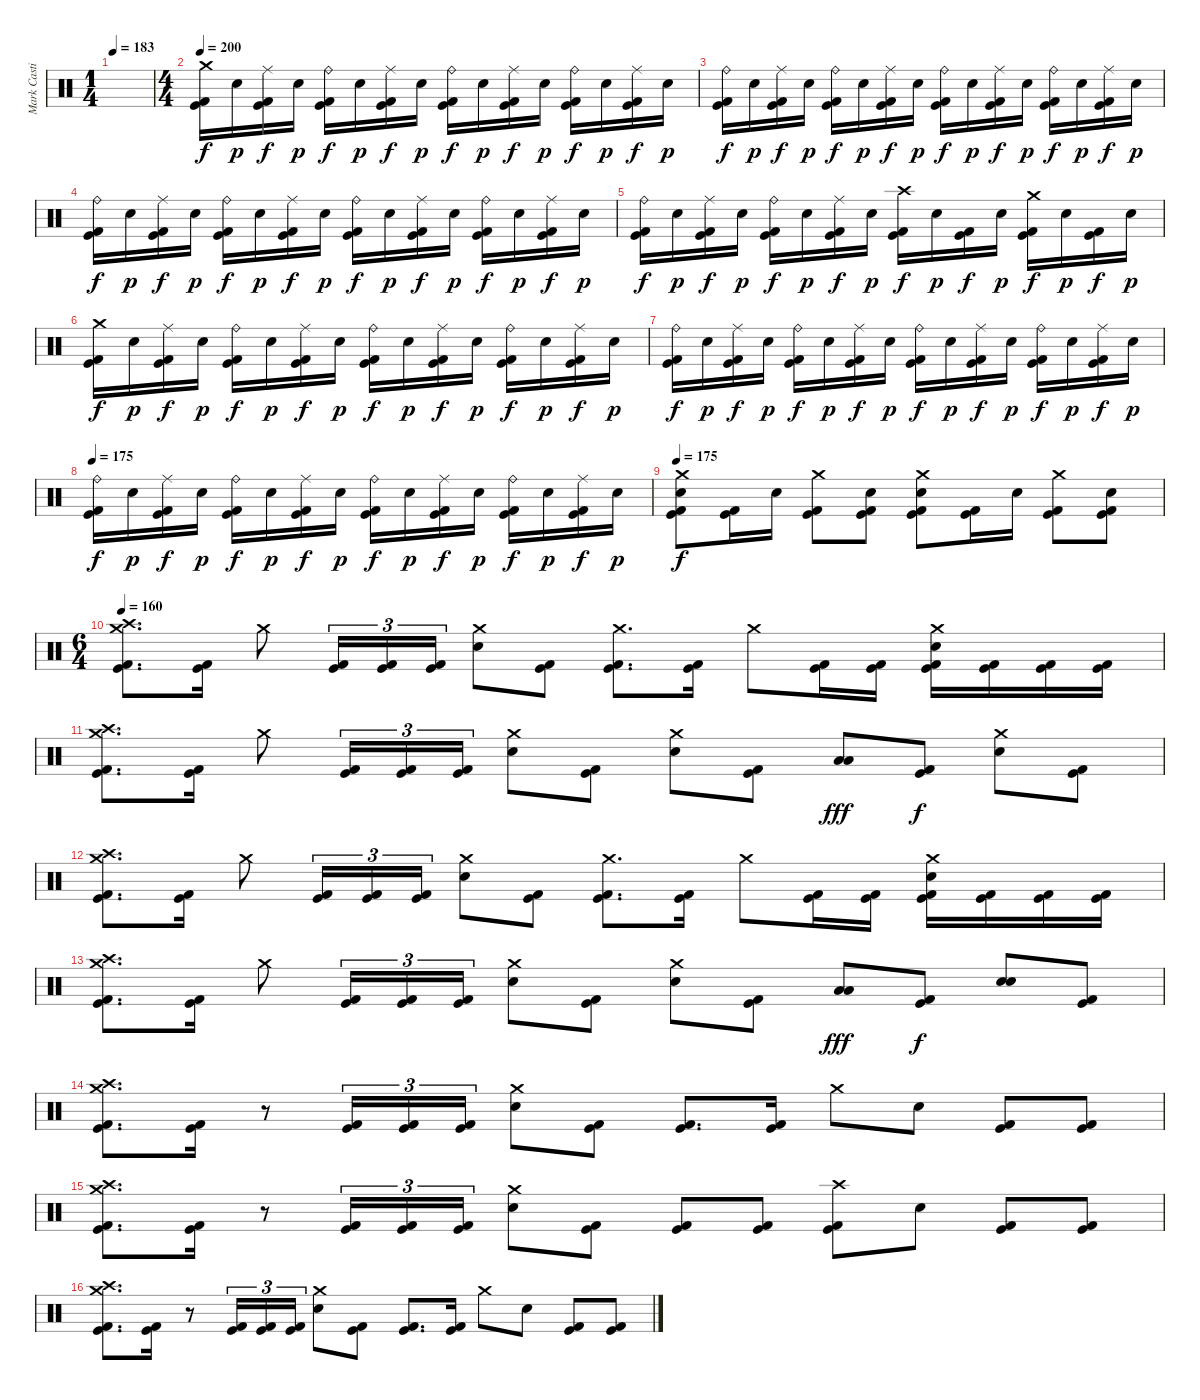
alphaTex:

\track ("Mark Castillo" "Mark Casti") {instrument percussion}
\staff {score}
\articulation defaults
\ts (1 4)
\tempo 183
\clef neutral
\ks c
|
\ts (4 4)
\tempo 200
("Crash medium (hit)" "Kick (hit)" "Kick (hit) 2").16{dy f} "Electric Snare (hit)".16{dy p} ("Ride (middle)" "Kick (hit)" "Kick (hit) 2").16{dy f} "Electric Snare (hit)".16{dy p} ("Ride (bell)" "Kick (hit)" "Kick (hit) 2").16{dy f} "Electric Snare (hit)".16{dy p} ("Ride (middle)" "Kick (hit)" "Kick (hit) 2").16{dy f} "Electric Snare (hit)".16{dy p} ("Ride (bell)" "Kick (hit)" "Kick (hit) 2").16{dy f} "Electric Snare (hit)".16{dy p} ("Ride (middle)" "Kick (hit)" "Kick (hit) 2").16{dy f} "Electric Snare (hit)".16{dy p} ("Ride (bell)" "Kick (hit)" "Kick (hit) 2").16{dy f} "Electric Snare (hit)".16{dy p} ("Ride (middle)" "Kick (hit)" "Kick (hit) 2").16{dy f} "Electric Snare (hit)".16{dy p} |
("Ride (bell)" "Kick (hit)" "Kick (hit) 2").16{dy f} "Electric Snare (hit)".16{dy p} ("Ride (middle)" "Kick (hit)" "Kick (hit) 2").16{dy f} "Electric Snare (hit)".16{dy p} ("Ride (bell)" "Kick (hit)" "Kick (hit) 2").16{dy f} "Electric Snare (hit)".16{dy p} ("Ride (middle)" "Kick (hit)" "Kick (hit) 2").16{dy f} "Electric Snare (hit)".16{dy p} ("Ride (bell)" "Kick (hit)" "Kick (hit) 2").16{dy f} "Electric Snare (hit)".16{dy p} ("Ride (middle)" "Kick (hit)" "Kick (hit) 2").16{dy f} "Electric Snare (hit)".16{dy p} ("Ride (bell)" "Kick (hit)" "Kick (hit) 2").16{dy f} "Electric Snare (hit)".16{dy p} ("Ride (middle)" "Kick (hit)" "Kick (hit) 2").16{dy f} "Electric Snare (hit)".16{dy p} |
("Ride (bell)" "Kick (hit)" "Kick (hit) 2").16{dy f} "Electric Snare (hit)".16{dy p} ("Ride (middle)" "Kick (hit)" "Kick (hit) 2").16{dy f} "Electric Snare (hit)".16{dy p} ("Ride (bell)" "Kick (hit)" "Kick (hit) 2").16{dy f} "Electric Snare (hit)".16{dy p} ("Ride (middle)" "Kick (hit)" "Kick (hit) 2").16{dy f} "Electric Snare (hit)".16{dy p} ("Ride (bell)" "Kick (hit)" "Kick (hit) 2").16{dy f} "Electric Snare (hit)".16{dy p} ("Ride (middle)" "Kick (hit)" "Kick (hit) 2").16{dy f} "Electric Snare (hit)".16{dy p} ("Ride (bell)" "Kick (hit)" "Kick (hit) 2").16{dy f} "Electric Snare (hit)".16{dy p} ("Ride (middle)" "Kick (hit)" "Kick (hit) 2").16{dy f} "Electric Snare (hit)".16{dy p} |
("Ride (bell)" "Kick (hit)" "Kick (hit) 2").16{dy f} "Electric Snare (hit)".16{dy p} ("Ride (middle)" "Kick (hit)" "Kick (hit) 2").16{dy f} "Electric Snare (hit)".16{dy p} ("Ride (bell)" "Kick (hit)" "Kick (hit) 2").16{dy f} "Electric Snare (hit)".16{dy p} ("Ride (middle)" "Kick (hit)" "Kick (hit) 2").16{dy f} "Electric Snare (hit)".16{dy p} ("Crash high (hit)" "Kick (hit)" "Kick (hit) 2").16{dy f} "Electric Snare (hit)".16{dy p} ("Kick (hit)" "Kick (hit) 2").16{dy f} "Electric Snare (hit)".16{dy p} ("Crash medium (hit)" "Kick (hit)" "Kick (hit) 2").16{dy f} "Electric Snare (hit)".16{dy p} ("Kick (hit)" "Kick (hit) 2").16{dy f} "Electric Snare (hit)".16{dy p} |
("Crash medium (hit)" "Kick (hit)" "Kick (hit) 2").16{dy f} "Electric Snare (hit)".16{dy p} ("Ride (middle)" "Kick (hit)" "Kick (hit) 2").16{dy f} "Electric Snare (hit)".16{dy p} ("Ride (bell)" "Kick (hit)" "Kick (hit) 2").16{dy f} "Electric Snare (hit)".16{dy p} ("Ride (middle)" "Kick (hit)" "Kick (hit) 2").16{dy f} "Electric Snare (hit)".16{dy p} ("Ride (bell)" "Kick (hit)" "Kick (hit) 2").16{dy f} "Electric Snare (hit)".16{dy p} ("Ride (middle)" "Kick (hit)" "Kick (hit) 2").16{dy f} "Electric Snare (hit)".16{dy p} ("Ride (bell)" "Kick (hit)" "Kick (hit) 2").16{dy f} "Electric Snare (hit)".16{dy p} ("Ride (middle)" "Kick (hit)" "Kick (hit) 2").16{dy f} "Electric Snare (hit)".16{dy p} |
("Ride (bell)" "Kick (hit)" "Kick (hit) 2").16{dy f} "Electric Snare (hit)".16{dy p} ("Ride (middle)" "Kick (hit)" "Kick (hit) 2").16{dy f} "Electric Snare (hit)".16{dy p} ("Ride (bell)" "Kick (hit)" "Kick (hit) 2").16{dy f} "Electric Snare (hit)".16{dy p} ("Ride (middle)" "Kick (hit)" "Kick (hit) 2").16{dy f} "Electric Snare (hit)".16{dy p} ("Ride (bell)" "Kick (hit)" "Kick (hit) 2").16{dy f} "Electric Snare (hit)".16{dy p} ("Ride (middle)" "Kick (hit)" "Kick (hit) 2").16{dy f} "Electric Snare (hit)".16{dy p} ("Ride (bell)" "Kick (hit)" "Kick (hit) 2").16{dy f} "Electric Snare (hit)".16{dy p} ("Ride (middle)" "Kick (hit)" "Kick (hit) 2").16{dy f} "Electric Snare (hit)".16{dy p} |
\tempo 175
("Ride (bell)" "Kick (hit)" "Kick (hit) 2").16{dy f} "Electric Snare (hit)".16{dy p} ("Ride (middle)" "Kick (hit)" "Kick (hit) 2").16{dy f} "Electric Snare (hit)".16{dy p} ("Ride (bell)" "Kick (hit)" "Kick (hit) 2").16{dy f} "Electric Snare (hit)".16{dy p} ("Ride (middle)" "Kick (hit)" "Kick (hit) 2").16{dy f} "Electric Snare (hit)".16{dy p} ("Ride (bell)" "Kick (hit)" "Kick (hit) 2").16{dy f} "Electric Snare (hit)".16{dy p} ("Ride (middle)" "Kick (hit)" "Kick (hit) 2").16{dy f} "Electric Snare (hit)".16{dy p} ("Ride (bell)" "Kick (hit)" "Kick (hit) 2").16{dy f} "Electric Snare (hit)".16{dy p} ("Ride (middle)" "Kick (hit)" "Kick (hit) 2").16{dy f} "Electric Snare (hit)".16{dy p} |
\tempo 175
("Crash medium (hit)" "Electric Snare (hit)" "Kick (hit)" "Kick (hit) 2").8{dy f} ("Kick (hit)" "Kick (hit) 2").16 "Electric Snare (hit)".16 ("Crash medium (hit)" "Kick (hit)" "Kick (hit) 2").8 ("Electric Snare (hit)" "Kick (hit)" "Kick (hit) 2").8 ("Crash medium (hit)" "Electric Snare (hit)" "Kick (hit)" "Kick (hit) 2").8 ("Kick (hit)" "Kick (hit) 2").16 "Electric Snare (hit)".16 ("Crash medium (hit)" "Kick (hit)" "Kick (hit) 2").8 ("Electric Snare (hit)" "Kick (hit)" "Kick (hit) 2").8 |
\ts (6 4)
\tempo 160
("Crash medium (hit)" "Crash high (hit)" "Kick (hit)" "Kick (hit) 2").8{d} ("Kick (hit)" "Kick (hit) 2").16 "Crash medium (hit)".8 ("Kick (hit)" "Kick (hit) 2").16{tu (3 2)} ("Kick (hit)" "Kick (hit) 2").16{tu (3 2)} ("Kick (hit)" "Kick (hit) 2").16{tu (3 2)} ("Crash medium (hit)" "Electric Snare (hit)").8 ("Kick (hit)" "Kick (hit) 2").8 ("Crash medium (hit)" "Kick (hit)" "Kick (hit) 2").8{d} ("Kick (hit)" "Kick (hit) 2").16 "Crash medium (hit)".8 ("Kick (hit)" "Kick (hit) 2").16 ("Kick (hit)" "Kick (hit) 2").16 ("Crash medium (hit)" "Electric Snare (hit)" "Kick (hit)" "Kick (hit) 2").16 ("Kick (hit)" "Kick (hit) 2").16 ("Kick (hit)" "Kick (hit) 2").16 ("Kick (hit)" "Kick (hit) 2").16 |
("Crash medium (hit)" "Crash high (hit)" "Kick (hit)" "Kick (hit) 2").8{d} ("Kick (hit)" "Kick (hit) 2").16 "Crash medium (hit)".8 ("Kick (hit)" "Kick (hit) 2").16{tu (3 2)} ("Kick (hit)" "Kick (hit) 2").16{tu (3 2)} ("Kick (hit)" "Kick (hit) 2").16{tu (3 2)} ("Crash medium (hit)" "Electric Snare (hit)").8 ("Kick (hit)" "Kick (hit) 2").8 ("Crash medium (hit)" "Electric Snare (hit)").8 ("Kick (hit)" "Kick (hit) 2").8 ("Low Tom (hit)" "Low Tom (hit)").8{bu 480 dy fff} ("Kick (hit)" "Kick (hit) 2").8{dy f} ("Crash medium (hit)" "Electric Snare (hit)").8 ("Kick (hit)" "Kick (hit) 2").8 |
("Crash medium (hit)" "Crash high (hit)" "Kick (hit)" "Kick (hit) 2").8{d} ("Kick (hit)" "Kick (hit) 2").16 "Crash medium (hit)".8 ("Kick (hit)" "Kick (hit) 2").16{tu (3 2)} ("Kick (hit)" "Kick (hit) 2").16{tu (3 2)} ("Kick (hit)" "Kick (hit) 2").16{tu (3 2)} ("Crash medium (hit)" "Electric Snare (hit)").8 ("Kick (hit)" "Kick (hit) 2").8 ("Crash medium (hit)" "Kick (hit)" "Kick (hit) 2").8{d} ("Kick (hit)" "Kick (hit) 2").16 "Crash medium (hit)".8 ("Kick (hit)" "Kick (hit) 2").16 ("Kick (hit)" "Kick (hit) 2").16 ("Crash medium (hit)" "Electric Snare (hit)" "Kick (hit)" "Kick (hit) 2").16 ("Kick (hit)" "Kick (hit) 2").16 ("Kick (hit)" "Kick (hit) 2").16 ("Kick (hit)" "Kick (hit) 2").16 |
("Crash medium (hit)" "Crash high (hit)" "Kick (hit)" "Kick (hit) 2").8{d} ("Kick (hit)" "Kick (hit) 2").16 "Crash medium (hit)".8 ("Kick (hit)" "Kick (hit) 2").16{tu (3 2)} ("Kick (hit)" "Kick (hit) 2").16{tu (3 2)} ("Kick (hit)" "Kick (hit) 2").16{tu (3 2)} ("Crash medium (hit)" "Electric Snare (hit)").8 ("Kick (hit)" "Kick (hit) 2").8 ("Crash medium (hit)" "Electric Snare (hit)").8 ("Kick (hit)" "Kick (hit) 2").8 ("Low Tom (hit)" "Low Tom (hit)").8{bu 480 dy fff} ("Kick (hit)" "Kick (hit) 2").8{dy f} ("Electric Snare (hit)" "Electric Snare (hit)").8{bu 480} ("Kick (hit)" "Kick (hit) 2").8 |
("Crash medium (hit)" "Crash high (hit)" "Kick (hit)" "Kick (hit) 2").8{d} ("Kick (hit)" "Kick (hit) 2").16 r.8 ("Kick (hit)" "Kick (hit) 2").16{tu (3 2)} ("Kick (hit)" "Kick (hit) 2").16{tu (3 2)} ("Kick (hit)" "Kick (hit) 2").16{tu (3 2)} ("Crash medium (hit)" "Electric Snare (hit)").8 ("Kick (hit)" "Kick (hit) 2").8 ("Kick (hit)" "Kick (hit) 2").8{d} ("Kick (hit)" "Kick (hit) 2").16 "Crash medium (hit)".8 "Electric Snare (hit)".8 ("Kick (hit)" "Kick (hit) 2").8 ("Kick (hit)" "Kick (hit) 2").8 |
("Crash medium (hit)" "Crash high (hit)" "Kick (hit)" "Kick (hit) 2").8{d} ("Kick (hit)" "Kick (hit) 2").16 r.8 ("Kick (hit)" "Kick (hit) 2").16{tu (3 2)} ("Kick (hit)" "Kick (hit) 2").16{tu (3 2)} ("Kick (hit)" "Kick (hit) 2").16{tu (3 2)} ("Crash medium (hit)" "Electric Snare (hit)").8 ("Kick (hit)" "Kick (hit) 2").8 ("Kick (hit)" "Kick (hit) 2").8 ("Kick (hit)" "Kick (hit) 2").8 ("Crash high (hit)" "Kick (hit)" "Kick (hit) 2").8 "Electric Snare (hit)".8 ("Kick (hit)" "Kick (hit) 2").8 ("Kick (hit)" "Kick (hit) 2").8 |
("Crash medium (hit)" "Crash high (hit)" "Kick (hit)" "Kick (hit) 2").8{d} ("Kick (hit)" "Kick (hit) 2").16 r.8 ("Kick (hit)" "Kick (hit) 2").16{tu (3 2)} ("Kick (hit)" "Kick (hit) 2").16{tu (3 2)} ("Kick (hit)" "Kick (hit) 2").16{tu (3 2)} ("Crash medium (hit)" "Electric Snare (hit)").8 ("Kick (hit)" "Kick (hit) 2").8 ("Kick (hit)" "Kick (hit) 2").8{d} ("Kick (hit)" "Kick (hit) 2").16 "Crash medium (hit)".8 "Electric Snare (hit)".8 ("Kick (hit)" "Kick (hit) 2").8 ("Kick (hit)" "Kick (hit) 2").8
